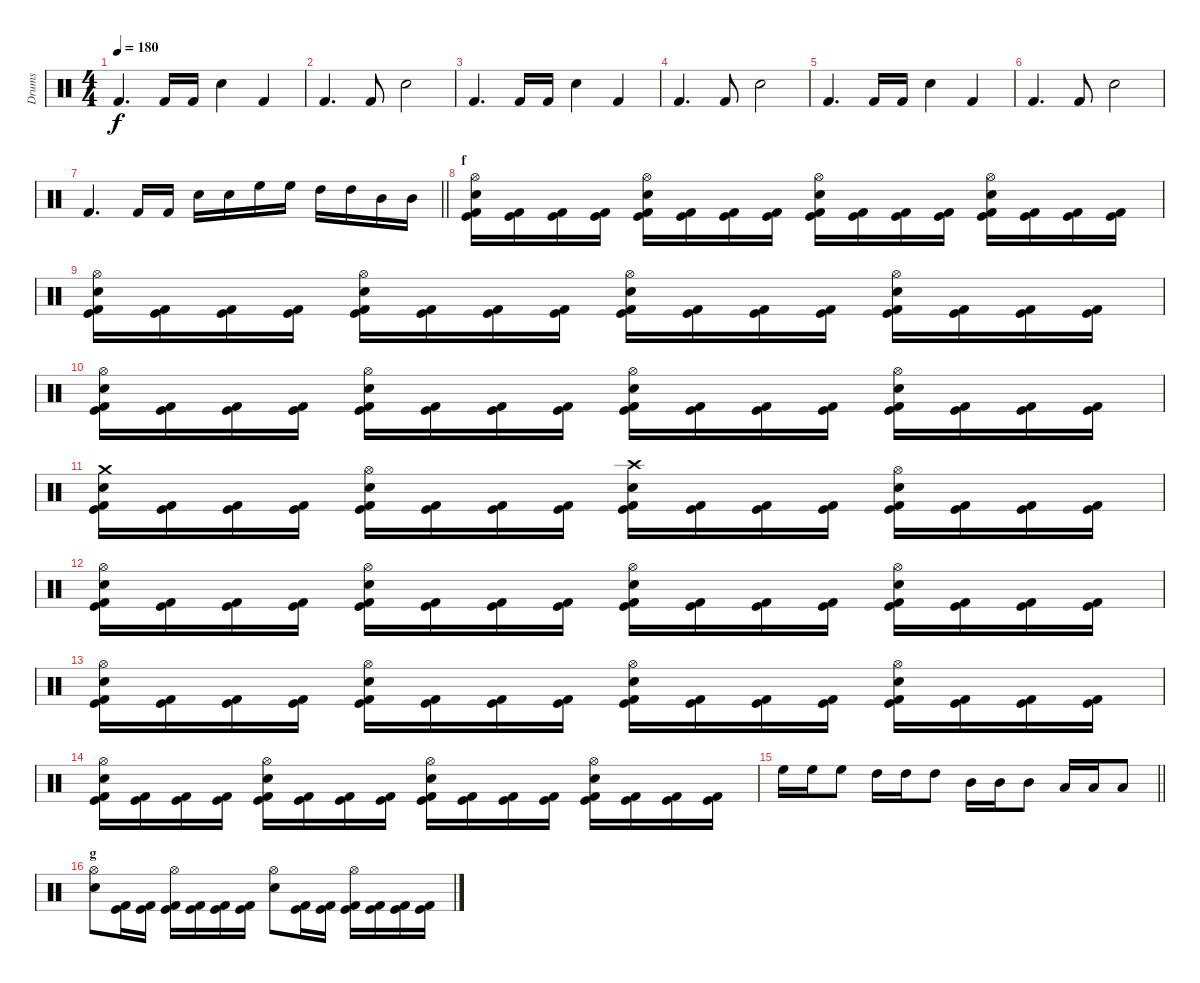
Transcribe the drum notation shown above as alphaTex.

\track ("Drums" "Drums") {instrument percussion}
\staff {score}
\articulation defaults
\ts (4 4)
\tempo 180
\clef neutral
\ks c "Kick (hit) 2".4{d dy f} "Kick (hit) 2".16 "Kick (hit) 2".16 "Electric Snare (hit)".4 "Kick (hit) 2".4
|
"Kick (hit) 2".4{d} "Kick (hit) 2".8 "Electric Snare (hit)".2 |
"Kick (hit) 2".4{d} "Kick (hit) 2".16 "Kick (hit) 2".16 "Electric Snare (hit)".4 "Kick (hit) 2".4 |
"Kick (hit) 2".4{d} "Kick (hit) 2".8 "Electric Snare (hit)".2 |
"Kick (hit) 2".4{d} "Kick (hit) 2".16 "Kick (hit) 2".16 "Electric Snare (hit)".4 "Kick (hit) 2".4 |
"Kick (hit) 2".4{d} "Kick (hit) 2".8 "Electric Snare (hit)".2 |
\barLineRight lightlight "Kick (hit) 2".4{d} "Kick (hit) 2".16 "Kick (hit) 2".16 "Electric Snare (hit)".16 "Electric Snare (hit)".16 "High Floor Tom (hit)".16 "High Floor Tom (hit)".16 "High Tom (hit)".16 "High Tom (hit)".16 "Mid Tom (hit)".16 "Mid Tom (hit)".16
|
\section ("" "f")
("Kick (hit)" "Kick (hit) 2" "Hi-Hat (open)" "Electric Snare (hit)").16 ("Kick (hit)" "Kick (hit) 2").16 ("Kick (hit)" "Kick (hit) 2").16 ("Kick (hit)" "Kick (hit) 2").16 ("Kick (hit)" "Kick (hit) 2" "Hi-Hat (open)" "Electric Snare (hit)").16 ("Kick (hit)" "Kick (hit) 2").16 ("Kick (hit)" "Kick (hit) 2").16 ("Kick (hit)" "Kick (hit) 2").16 ("Kick (hit)" "Kick (hit) 2" "Hi-Hat (open)" "Electric Snare (hit)").16 ("Kick (hit)" "Kick (hit) 2").16 ("Kick (hit)" "Kick (hit) 2").16 ("Kick (hit)" "Kick (hit) 2").16 ("Kick (hit)" "Kick (hit) 2" "Hi-Hat (open)" "Electric Snare (hit)").16 ("Kick (hit)" "Kick (hit) 2").16 ("Kick (hit)" "Kick (hit) 2").16 ("Kick (hit)" "Kick (hit) 2").16 |
("Kick (hit)" "Kick (hit) 2" "Hi-Hat (open)" "Electric Snare (hit)").16 ("Kick (hit)" "Kick (hit) 2").16 ("Kick (hit)" "Kick (hit) 2").16 ("Kick (hit)" "Kick (hit) 2").16 ("Kick (hit)" "Kick (hit) 2" "Hi-Hat (open)" "Electric Snare (hit)").16 ("Kick (hit)" "Kick (hit) 2").16 ("Kick (hit)" "Kick (hit) 2").16 ("Kick (hit)" "Kick (hit) 2").16 ("Kick (hit)" "Kick (hit) 2" "Hi-Hat (open)" "Electric Snare (hit)").16 ("Kick (hit)" "Kick (hit) 2").16 ("Kick (hit)" "Kick (hit) 2").16 ("Kick (hit)" "Kick (hit) 2").16 ("Kick (hit)" "Kick (hit) 2" "Hi-Hat (open)" "Electric Snare (hit)").16 ("Kick (hit)" "Kick (hit) 2").16 ("Kick (hit)" "Kick (hit) 2").16 ("Kick (hit)" "Kick (hit) 2").16 |
("Kick (hit)" "Kick (hit) 2" "Hi-Hat (open)" "Electric Snare (hit)").16 ("Kick (hit)" "Kick (hit) 2").16 ("Kick (hit)" "Kick (hit) 2").16 ("Kick (hit)" "Kick (hit) 2").16 ("Kick (hit)" "Kick (hit) 2" "Hi-Hat (open)" "Electric Snare (hit)").16 ("Kick (hit)" "Kick (hit) 2").16 ("Kick (hit)" "Kick (hit) 2").16 ("Kick (hit)" "Kick (hit) 2").16 ("Kick (hit)" "Kick (hit) 2" "Hi-Hat (open)" "Electric Snare (hit)").16 ("Kick (hit)" "Kick (hit) 2").16 ("Kick (hit)" "Kick (hit) 2").16 ("Kick (hit)" "Kick (hit) 2").16 ("Kick (hit)" "Kick (hit) 2" "Hi-Hat (open)" "Electric Snare (hit)").16 ("Kick (hit)" "Kick (hit) 2").16 ("Kick (hit)" "Kick (hit) 2").16 ("Kick (hit)" "Kick (hit) 2").16 |
("Kick (hit)" "Kick (hit) 2" "Crash medium (hit)" "Electric Snare (hit)").16 ("Kick (hit)" "Kick (hit) 2").16 ("Kick (hit)" "Kick (hit) 2").16 ("Kick (hit)" "Kick (hit) 2").16 ("Kick (hit)" "Kick (hit) 2" "Hi-Hat (open)" "Electric Snare (hit)").16 ("Kick (hit)" "Kick (hit) 2").16 ("Kick (hit)" "Kick (hit) 2").16 ("Kick (hit)" "Kick (hit) 2").16 ("Kick (hit)" "Kick (hit) 2" "Crash high (hit)" "Electric Snare (hit)").16 ("Kick (hit)" "Kick (hit) 2").16 ("Kick (hit)" "Kick (hit) 2").16 ("Kick (hit)" "Kick (hit) 2").16 ("Kick (hit)" "Kick (hit) 2" "Hi-Hat (open)" "Electric Snare (hit)").16 ("Kick (hit)" "Kick (hit) 2").16 ("Kick (hit)" "Kick (hit) 2").16 ("Kick (hit)" "Kick (hit) 2").16 |
("Kick (hit)" "Kick (hit) 2" "Hi-Hat (open)" "Electric Snare (hit)").16 ("Kick (hit)" "Kick (hit) 2").16 ("Kick (hit)" "Kick (hit) 2").16 ("Kick (hit)" "Kick (hit) 2").16 ("Kick (hit)" "Kick (hit) 2" "Hi-Hat (open)" "Electric Snare (hit)").16 ("Kick (hit)" "Kick (hit) 2").16 ("Kick (hit)" "Kick (hit) 2").16 ("Kick (hit)" "Kick (hit) 2").16 ("Kick (hit)" "Kick (hit) 2" "Hi-Hat (open)" "Electric Snare (hit)").16 ("Kick (hit)" "Kick (hit) 2").16 ("Kick (hit)" "Kick (hit) 2").16 ("Kick (hit)" "Kick (hit) 2").16 ("Kick (hit)" "Kick (hit) 2" "Hi-Hat (open)" "Electric Snare (hit)").16 ("Kick (hit)" "Kick (hit) 2").16 ("Kick (hit)" "Kick (hit) 2").16 ("Kick (hit)" "Kick (hit) 2").16 |
("Kick (hit)" "Kick (hit) 2" "Hi-Hat (open)" "Electric Snare (hit)").16 ("Kick (hit)" "Kick (hit) 2").16 ("Kick (hit)" "Kick (hit) 2").16 ("Kick (hit)" "Kick (hit) 2").16 ("Kick (hit)" "Kick (hit) 2" "Hi-Hat (open)" "Electric Snare (hit)").16 ("Kick (hit)" "Kick (hit) 2").16 ("Kick (hit)" "Kick (hit) 2").16 ("Kick (hit)" "Kick (hit) 2").16 ("Kick (hit)" "Kick (hit) 2" "Hi-Hat (open)" "Electric Snare (hit)").16 ("Kick (hit)" "Kick (hit) 2").16 ("Kick (hit)" "Kick (hit) 2").16 ("Kick (hit)" "Kick (hit) 2").16 ("Kick (hit)" "Kick (hit) 2" "Hi-Hat (open)" "Electric Snare (hit)").16 ("Kick (hit)" "Kick (hit) 2").16 ("Kick (hit)" "Kick (hit) 2").16 ("Kick (hit)" "Kick (hit) 2").16 |
("Kick (hit)" "Kick (hit) 2" "Hi-Hat (open)" "Electric Snare (hit)").16 ("Kick (hit)" "Kick (hit) 2").16 ("Kick (hit)" "Kick (hit) 2").16 ("Kick (hit)" "Kick (hit) 2").16 ("Kick (hit)" "Kick (hit) 2" "Hi-Hat (open)" "Electric Snare (hit)").16 ("Kick (hit)" "Kick (hit) 2").16 ("Kick (hit)" "Kick (hit) 2").16 ("Kick (hit)" "Kick (hit) 2").16 ("Kick (hit)" "Kick (hit) 2" "Hi-Hat (open)" "Electric Snare (hit)").16 ("Kick (hit)" "Kick (hit) 2").16 ("Kick (hit)" "Kick (hit) 2").16 ("Kick (hit)" "Kick (hit) 2").16 ("Kick (hit)" "Kick (hit) 2" "Hi-Hat (open)" "Electric Snare (hit)").16 ("Kick (hit)" "Kick (hit) 2").16 ("Kick (hit)" "Kick (hit) 2").16 ("Kick (hit)" "Kick (hit) 2").16 |
\barLineRight lightlight "High Floor Tom (hit)".16 "High Floor Tom (hit)".16 "High Floor Tom (hit)".8 "High Tom (hit)".16 "High Tom (hit)".16 "High Tom (hit)".8 "Mid Tom (hit)".16 "Mid Tom (hit)".16 "Mid Tom (hit)".8 "Low Tom (hit)".16 "Low Tom (hit)".16 "Low Tom (hit)".8
|
\section ("" "g")
("Hi-Hat (open)" "Electric Snare (hit)").8 ("Kick (hit) 2" "Kick (hit)").16 ("Kick (hit) 2" "Kick (hit)").16 ("Kick (hit) 2" "Hi-Hat (open)" "Kick (hit)").16 ("Kick (hit) 2" "Kick (hit)").16 ("Kick (hit) 2" "Kick (hit)").16 ("Kick (hit) 2" "Kick (hit)").16 ("Hi-Hat (open)" "Electric Snare (hit)").8 ("Kick (hit) 2" "Kick (hit)").16 ("Kick (hit) 2" "Kick (hit)").16 ("Kick (hit) 2" "Hi-Hat (open)" "Kick (hit)").16 ("Kick (hit) 2" "Kick (hit)").16 ("Kick (hit) 2" "Kick (hit)").16 ("Kick (hit) 2" "Kick (hit)").16
